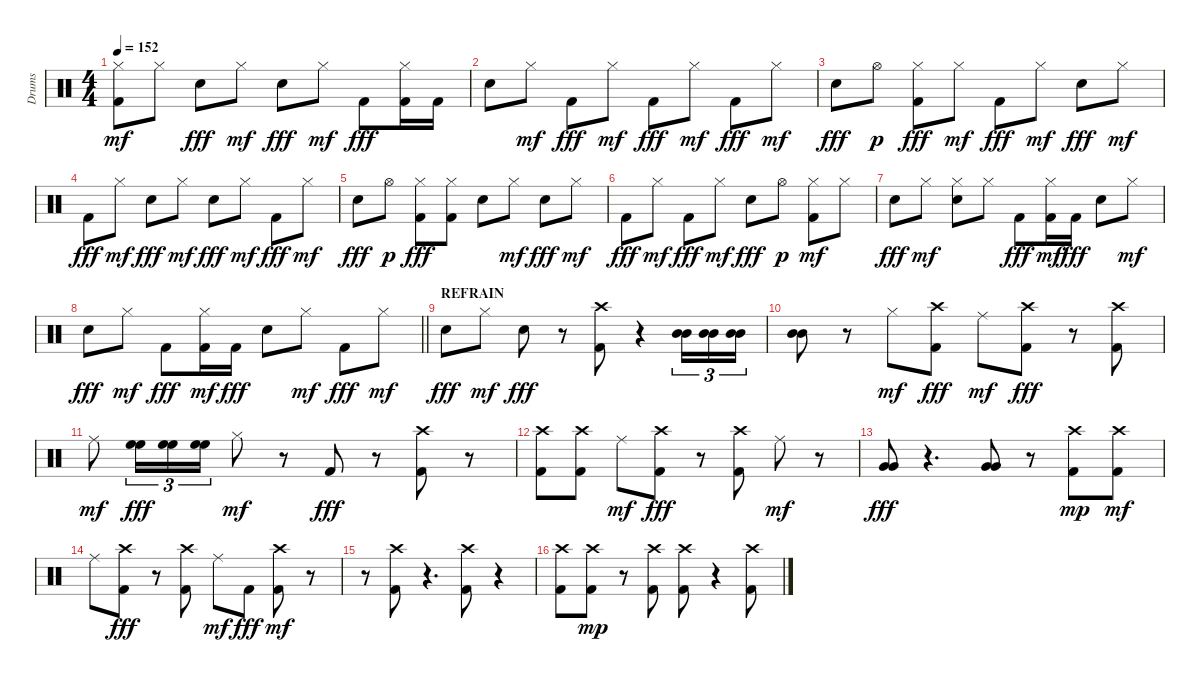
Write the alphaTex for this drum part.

\track ("Drums" "Drums") {instrument percussion}
\staff {score}
\articulation defaults
\ts (4 4)
\tempo 152
\clef neutral
\ks c
("Kick (hit) 2" "Hi-Hat (closed)").8{dy mf} "Hi-Hat (closed)".8 "Electric Snare (hit)".8{dy fff} "Hi-Hat (closed)".8{dy mf} "Electric Snare (hit)".8{dy fff} "Hi-Hat (closed)".8{dy mf} "Kick (hit) 2".8{dy fff} ("Hi-Hat (closed)" "Kick (hit) 2").16 "Kick (hit) 2".16 |
"Electric Snare (hit)".8 "Hi-Hat (closed)".8{dy mf} "Kick (hit) 2".8{dy fff} "Hi-Hat (closed)".8{dy mf} "Kick (hit) 2".8{dy fff} "Hi-Hat (closed)".8{dy mf} "Kick (hit) 2".8{dy fff} "Hi-Hat (closed)".8{dy mf} |
"Electric Snare (hit)".8{dy fff} "Hi-Hat (open)".8{dy p} ("Hi-Hat (closed)" "Kick (hit) 2").8{dy fff} "Hi-Hat (closed)".8{dy mf} "Kick (hit) 2".8{dy fff} "Hi-Hat (closed)".8{dy mf} "Electric Snare (hit)".8{dy fff} "Hi-Hat (closed)".8{dy mf} |
"Kick (hit) 2".8{dy fff} "Hi-Hat (closed)".8{dy mf} "Electric Snare (hit)".8{dy fff} "Hi-Hat (closed)".8{dy mf} "Electric Snare (hit)".8{dy fff} "Hi-Hat (closed)".8{dy mf} "Kick (hit) 2".8{dy fff} "Hi-Hat (closed)".8{dy mf} |
"Electric Snare (hit)".8{dy fff} "Hi-Hat (open)".8{dy p} ("Hi-Hat (closed)" "Kick (hit) 2").8{dy fff} ("Hi-Hat (closed)" "Kick (hit) 2").8 "Electric Snare (hit)".8 "Hi-Hat (closed)".8{dy mf} "Electric Snare (hit)".8{dy fff} "Hi-Hat (closed)".8{dy mf} |
"Kick (hit) 2".8{dy fff} "Hi-Hat (closed)".8{dy mf} "Kick (hit) 2".8{dy fff} "Hi-Hat (closed)".8{dy mf} "Electric Snare (hit)".8{dy fff} "Hi-Hat (open)".8{dy p} ("Kick (hit) 2" "Hi-Hat (closed)").8{dy mf} "Hi-Hat (closed)".8 |
"Electric Snare (hit)".8{dy fff} "Hi-Hat (closed)".8{dy mf} ("Electric Snare (hit)" "Hi-Hat (closed)").8 "Hi-Hat (closed)".8 "Kick (hit) 2".8{dy fff} ("Kick (hit) 2" "Hi-Hat (closed)").16{dy mf} "Kick (hit) 2".16{dy fff} "Electric Snare (hit)".8 "Hi-Hat (closed)".8{dy mf} |
\barLineRight lightlight "Electric Snare (hit)".8{dy fff} "Hi-Hat (closed)".8{dy mf} "Kick (hit) 2".8{dy fff}
("Kick (hit) 2" "Hi-Hat (closed)").16{dy mf} "Kick (hit) 2".16{dy fff} "Electric Snare (hit)".8 "Hi-Hat (closed)".8{dy mf} "Kick (hit) 2".8{dy fff} "Hi-Hat (closed)".8{dy mf} |
\section ("" "REFRAIN")
"Electric Snare (hit)".8{dy fff} "Hi-Hat (closed)".8{dy mf} "Electric Snare (hit)".8{dy fff} r.8 ("Crash high (hit)" "Kick (hit) 2").8 r.4 ("Mid Tom (hit)" "Mid Tom (hit)").16{tu (3 2)} ("Mid Tom (hit)" "Mid Tom (hit)").16{tu (3 2)} ("Mid Tom (hit)" "Mid Tom (hit)").16{tu (3 2)} |
("Mid Tom (hit)" "Mid Tom (hit)").8 r.8 "Hi-Hat (closed)".8{dy mf} ("Crash high (hit)" "Kick (hit) 2").8{dy fff} "Ride (middle)".8{dy mf} ("Crash high (hit)" "Kick (hit) 2").8{dy fff} r.8 ("Crash high (hit)" "Kick (hit) 2").8 |
"Ride (middle)".8{dy mf} ("High Floor Tom (hit)" "High Floor Tom (hit)").16{tu (3 2) dy fff} ("High Floor Tom (hit)" "High Floor Tom (hit)").16{tu (3 2)} ("High Floor Tom (hit)" "High Floor Tom (hit)").16{tu (3 2)} "Hi-Hat (closed)".8{dy mf} r.8 "Kick (hit) 2".8{dy fff} r.8 ("Crash high (hit)" "Kick (hit) 2").8 r.8 |
("Crash high (hit)" "Kick (hit) 2").8 ("Crash high (hit)" "Kick (hit) 2").8 "Ride (middle)".8{dy mf} ("Crash high (hit)" "Kick (hit) 2").8{dy fff} r.8 ("Crash high (hit)" "Kick (hit) 2").8 "Ride (middle)".8{dy mf} r.8 |
("Very Low Tom (hit)" "Very Low Tom (hit)").8{dy fff} r.4{d} ("Very Low Tom (hit)" "Very Low Tom (hit)").8 r.8 ("Kick (hit) 2" "Crash high (hit)").8{dy mp} ("Kick (hit) 2" "Crash high (hit)").8{dy mf} |
"Ride (middle)".8 ("Crash high (hit)" "Kick (hit) 2").8{dy fff} r.8 ("Crash high (hit)" "Kick (hit) 2").8 "Ride (middle)".8{dy mf} "Kick (hit) 2".8{dy fff} ("Kick (hit) 2" "Crash high (hit)").8{dy mf} r.8 |
r.8 ("Kick (hit) 2" "Crash high (hit)").8 r.4{d} ("Kick (hit) 2" "Crash high (hit)").8 r.4 |
("Kick (hit) 2" "Crash high (hit)").8 ("Kick (hit) 2" "Crash high (hit)").8{dy mp} r.8 ("Kick (hit) 2" "Crash high (hit)").8 ("Kick (hit) 2" "Crash high (hit)").8 r.4 ("Kick (hit) 2" "Crash high (hit)").8
